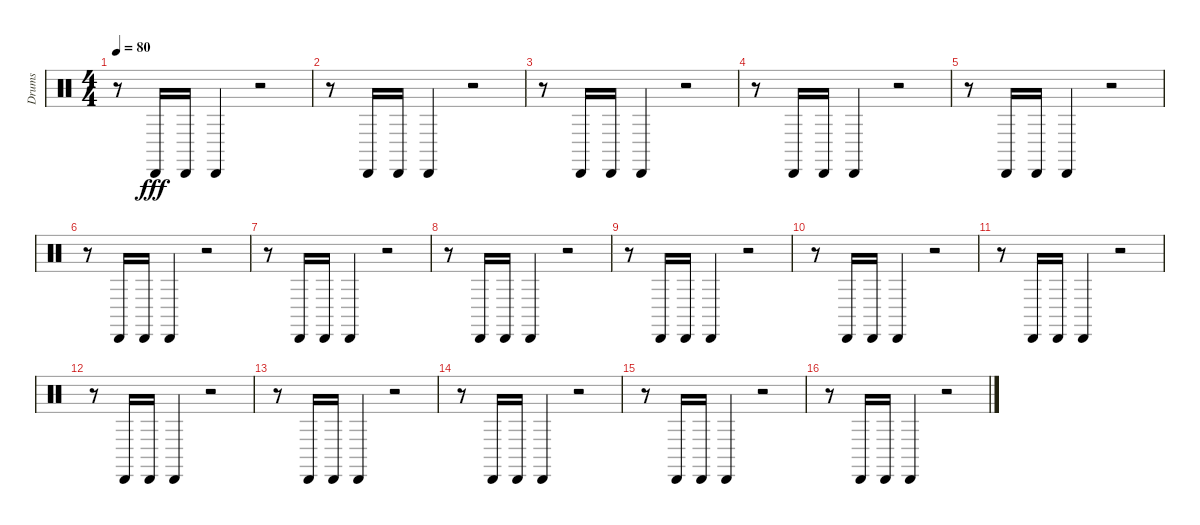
\track ("Drums" "Drums") {instrument percussion}
\staff {score}
\articulation defaults
\ts (4 4)
\tempo 80
\clef neutral
\ks c
r.8{dy fff} "Cabasa (hit)".16 "Cabasa (hit)".16 "Cabasa (hit)".4 r.2 |
r.8 "Cabasa (hit)".16 "Cabasa (hit)".16 "Cabasa (hit)".4 r.2 |
r.8 "Cabasa (hit)".16 "Cabasa (hit)".16 "Cabasa (hit)".4 r.2 |
r.8 "Cabasa (hit)".16 "Cabasa (hit)".16 "Cabasa (hit)".4 r.2 |
r.8 "Cabasa (hit)".16 "Cabasa (hit)".16 "Cabasa (hit)".4 r.2 |
r.8 "Cabasa (hit)".16 "Cabasa (hit)".16 "Cabasa (hit)".4 r.2 |
r.8 "Cabasa (hit)".16 "Cabasa (hit)".16 "Cabasa (hit)".4 r.2 |
r.8 "Cabasa (hit)".16 "Cabasa (hit)".16 "Cabasa (hit)".4 r.2 |
r.8 "Cabasa (hit)".16 "Cabasa (hit)".16 "Cabasa (hit)".4 r.2 |
r.8 "Cabasa (hit)".16 "Cabasa (hit)".16 "Cabasa (hit)".4 r.2 |
r.8 "Cabasa (hit)".16 "Cabasa (hit)".16 "Cabasa (hit)".4 r.2 |
r.8 "Cabasa (hit)".16 "Cabasa (hit)".16 "Cabasa (hit)".4 r.2 |
r.8 "Cabasa (hit)".16 "Cabasa (hit)".16 "Cabasa (hit)".4 r.2 |
r.8 "Cabasa (hit)".16 "Cabasa (hit)".16 "Cabasa (hit)".4 r.2 |
r.8 "Cabasa (hit)".16 "Cabasa (hit)".16 "Cabasa (hit)".4 r.2 |
r.8 "Cabasa (hit)".16 "Cabasa (hit)".16 "Cabasa (hit)".4 r.2
